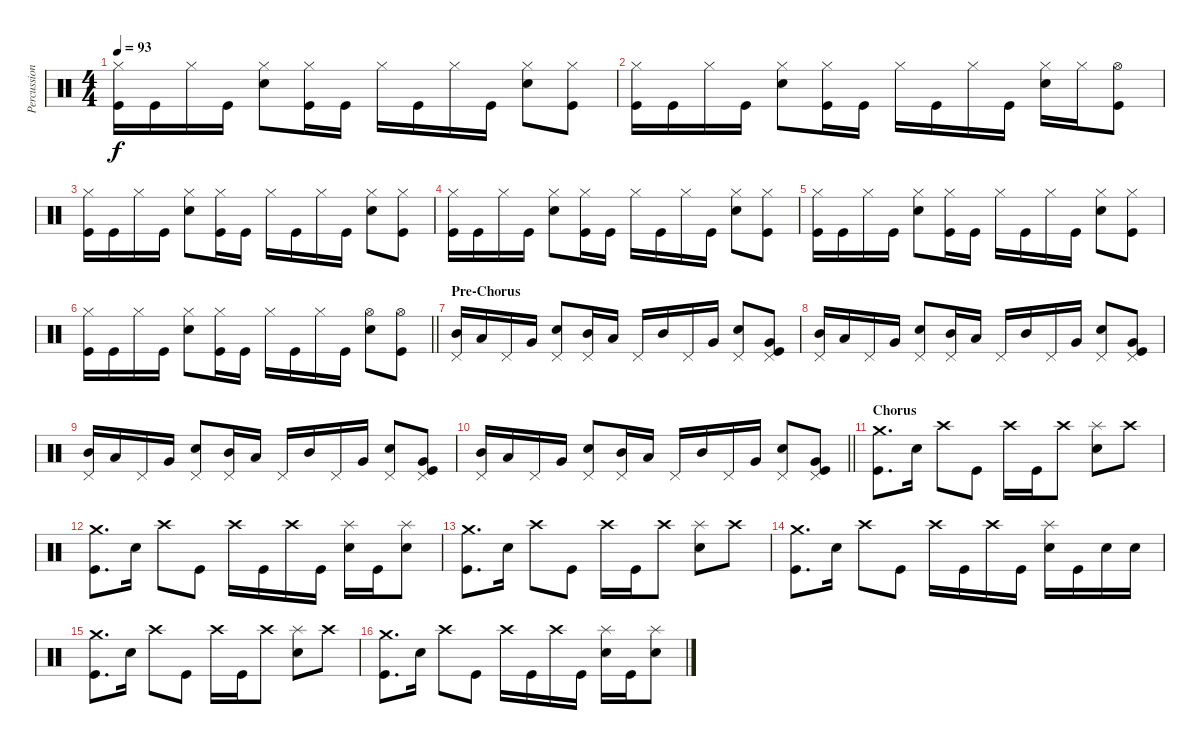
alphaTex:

\track ("Percussion" "Percussion") {instrument percussion}
\staff {score}
\articulation defaults
\ts (4 4)
\tempo 93
\clef neutral
\ks c
("Hi-Hat (closed)" "Kick (hit)").16{dy f} "Kick (hit)".16 "Hi-Hat (closed)".16 "Kick (hit)".16 ("Hi-Hat (closed)" "Electric Snare (hit)").8 ("Hi-Hat (closed)" "Kick (hit)").16 "Kick (hit)".16 "Hi-Hat (closed)".16 "Kick (hit)".16 "Hi-Hat (closed)".16 "Kick (hit)".16 ("Hi-Hat (closed)" "Electric Snare (hit)").8 ("Hi-Hat (closed)" "Kick (hit)").8 |
("Hi-Hat (closed)" "Kick (hit)").16 "Kick (hit)".16 "Hi-Hat (closed)".16 "Kick (hit)".16 ("Hi-Hat (closed)" "Electric Snare (hit)").8 ("Hi-Hat (closed)" "Kick (hit)").16 "Kick (hit)".16 "Hi-Hat (closed)".16 "Kick (hit)".16 "Hi-Hat (closed)".16 "Kick (hit)".16 ("Hi-Hat (closed)" "Electric Snare (hit)").16 "Hi-Hat (closed)".16 ("Hi-Hat (open)" "Kick (hit)").8 |
("Hi-Hat (closed)" "Kick (hit)").16 "Kick (hit)".16 "Hi-Hat (closed)".16 "Kick (hit)".16 ("Hi-Hat (closed)" "Electric Snare (hit)").8 ("Hi-Hat (closed)" "Kick (hit)").16 "Kick (hit)".16 "Hi-Hat (closed)".16 "Kick (hit)".16 "Hi-Hat (closed)".16 "Kick (hit)".16 ("Hi-Hat (closed)" "Electric Snare (hit)").8 ("Hi-Hat (closed)" "Kick (hit)").8 |
("Hi-Hat (closed)" "Kick (hit)").16 "Kick (hit)".16 "Hi-Hat (closed)".16 "Kick (hit)".16 ("Hi-Hat (closed)" "Electric Snare (hit)").8 ("Hi-Hat (closed)" "Kick (hit)").16 "Kick (hit)".16 "Hi-Hat (closed)".16 "Kick (hit)".16 "Hi-Hat (closed)".16 "Kick (hit)".16 ("Hi-Hat (closed)" "Electric Snare (hit)").8 ("Hi-Hat (closed)" "Kick (hit)").8 |
("Hi-Hat (closed)" "Kick (hit)").16 "Kick (hit)".16 "Hi-Hat (closed)".16 "Kick (hit)".16 ("Hi-Hat (closed)" "Electric Snare (hit)").8 ("Hi-Hat (closed)" "Kick (hit)").16 "Kick (hit)".16 "Hi-Hat (closed)".16 "Kick (hit)".16 "Hi-Hat (closed)".16 "Kick (hit)".16 ("Hi-Hat (closed)" "Electric Snare (hit)").8 ("Hi-Hat (closed)" "Kick (hit)").8 |
\barLineRight lightlight
("Hi-Hat (closed)" "Kick (hit)").16 "Kick (hit)".16 "Hi-Hat (closed)".16 "Kick (hit)".16 ("Hi-Hat (closed)" "Electric Snare (hit)").8 ("Hi-Hat (closed)" "Kick (hit)").16 "Kick (hit)".16 "Hi-Hat (closed)".16 "Kick (hit)".16 "Hi-Hat (closed)".16 "Kick (hit)".16 ("Hi-Hat (open)" "Electric Snare (hit)").8 ("Hi-Hat (open)" "Kick (hit)").8 |
\section ("" "Pre-Chorus")
("Pedal Hi-Hat (hit)" "Mid Tom (hit)").16 "Low Tom (hit)".16 "Pedal Hi-Hat (hit)".16 "Very Low Tom (hit)".16 ("Pedal Hi-Hat (hit)" "Electric Snare (hit)").8 ("Pedal Hi-Hat (hit)" "Mid Tom (hit)").16 "Low Tom (hit)".16 "Pedal Hi-Hat (hit)".16 "Mid Tom (hit)".16 "Pedal Hi-Hat (hit)".16 "Very Low Tom (hit)".16 ("Pedal Hi-Hat (hit)" "Electric Snare (hit)").8 ("Pedal Hi-Hat (hit)" "Very Low Tom (hit)" "Kick (hit)").8 |
("Pedal Hi-Hat (hit)" "Mid Tom (hit)").16 "Low Tom (hit)".16 "Pedal Hi-Hat (hit)".16 "Very Low Tom (hit)".16 ("Pedal Hi-Hat (hit)" "Electric Snare (hit)").8 ("Pedal Hi-Hat (hit)" "Mid Tom (hit)").16 "Low Tom (hit)".16 "Pedal Hi-Hat (hit)".16 "Mid Tom (hit)".16 "Pedal Hi-Hat (hit)".16 "Very Low Tom (hit)".16 ("Pedal Hi-Hat (hit)" "Electric Snare (hit)").8 ("Pedal Hi-Hat (hit)" "Very Low Tom (hit)" "Kick (hit)").8 |
("Pedal Hi-Hat (hit)" "Mid Tom (hit)").16 "Low Tom (hit)".16 "Pedal Hi-Hat (hit)".16 "Very Low Tom (hit)".16 ("Pedal Hi-Hat (hit)" "Electric Snare (hit)").8 ("Pedal Hi-Hat (hit)" "Mid Tom (hit)").16 "Low Tom (hit)".16 "Pedal Hi-Hat (hit)".16 "Mid Tom (hit)".16 "Pedal Hi-Hat (hit)".16 "Very Low Tom (hit)".16 ("Pedal Hi-Hat (hit)" "Electric Snare (hit)").8 ("Pedal Hi-Hat (hit)" "Very Low Tom (hit)" "Kick (hit)").8 |
\barLineRight lightlight
("Pedal Hi-Hat (hit)" "Mid Tom (hit)").16 "Low Tom (hit)".16 "Pedal Hi-Hat (hit)".16 "Very Low Tom (hit)".16 ("Pedal Hi-Hat (hit)" "Electric Snare (hit)").8 ("Pedal Hi-Hat (hit)" "Mid Tom (hit)").16 "Low Tom (hit)".16 "Pedal Hi-Hat (hit)".16 "Mid Tom (hit)".16 "Pedal Hi-Hat (hit)".16 "Very Low Tom (hit)".16 ("Pedal Hi-Hat (hit)" "Electric Snare (hit)").8 ("Pedal Hi-Hat (hit)" "Very Low Tom (hit)" "Kick (hit)").8 |
\section ("" "Chorus")
("Crash medium (hit)" "Kick (hit)").8{d} "Electric Snare (hit)".16 "Crash high (hit)".8 "Kick (hit)".8 "Crash high (hit)".16 "Kick (hit)".16 "Crash high (hit)".8 ("Splash (hit)" "Electric Snare (hit)").8 "Crash high (hit)".8 |
("Crash medium (hit)" "Kick (hit)").8{d} "Electric Snare (hit)".16 "Crash high (hit)".8 "Kick (hit)".8 "Crash high (hit)".16 "Kick (hit)".16 "Crash high (hit)".16 "Kick (hit)".16 ("Splash (hit)" "Electric Snare (hit)").16 "Kick (hit)".16 ("Splash (hit)" "Electric Snare (hit)").8 |
("Crash medium (hit)" "Kick (hit)").8{d} "Electric Snare (hit)".16 "Crash high (hit)".8 "Kick (hit)".8 "Crash high (hit)".16 "Kick (hit)".16 "Crash high (hit)".8 ("Splash (hit)" "Electric Snare (hit)").8 "Crash high (hit)".8 |
("Crash medium (hit)" "Kick (hit)").8{d} "Electric Snare (hit)".16 "Crash high (hit)".8 "Kick (hit)".8 "Crash high (hit)".16 "Kick (hit)".16 "Crash high (hit)".16 "Kick (hit)".16 ("Splash (hit)" "Electric Snare (hit)").16 "Kick (hit)".16 "Electric Snare (hit)".16 "Electric Snare (hit)".16 |
("Crash medium (hit)" "Kick (hit)").8{d} "Electric Snare (hit)".16 "Crash high (hit)".8 "Kick (hit)".8 "Crash high (hit)".16 "Kick (hit)".16 "Crash high (hit)".8 ("Splash (hit)" "Electric Snare (hit)").8 "Crash high (hit)".8 |
("Crash medium (hit)" "Kick (hit)").8{d} "Electric Snare (hit)".16 "Crash high (hit)".8 "Kick (hit)".8 "Crash high (hit)".16 "Kick (hit)".16 "Crash high (hit)".16 "Kick (hit)".16 ("Splash (hit)" "Electric Snare (hit)").16 "Kick (hit)".16 ("Splash (hit)" "Electric Snare (hit)").8
